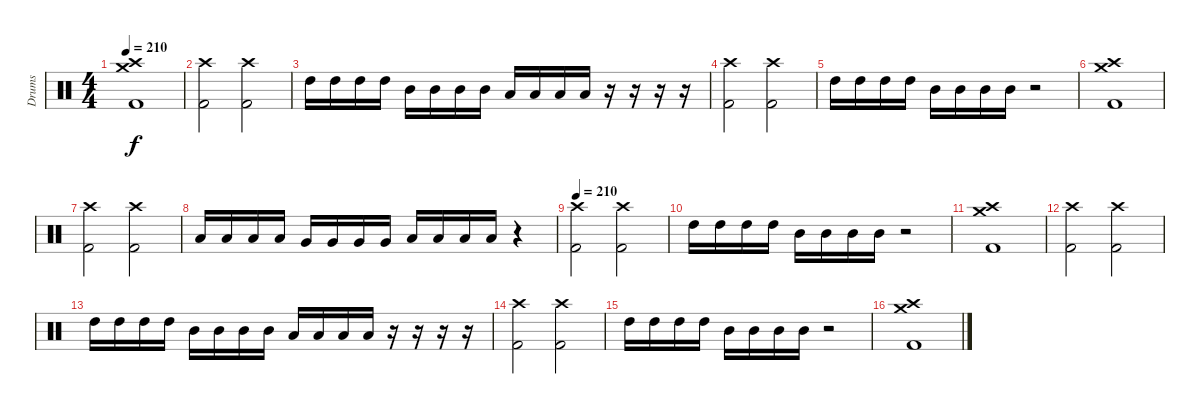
\track ("Drums" "Drums") {instrument percussion}
\staff {score}
\articulation defaults
\ts (4 4)
\tempo 210
\clef neutral
\ks c
("Crash high (hit)" "Crash medium (hit)" "Kick (hit) 2").1{dy f} |
("Crash high (hit)" "Kick (hit) 2").2 ("Crash high (hit)" "Kick (hit) 2").2 |
"High Tom (hit)".16 "High Tom (hit)".16 "High Tom (hit)".16 "High Tom (hit)".16 "Mid Tom (hit)".16 "Mid Tom (hit)".16 "Mid Tom (hit)".16 "Mid Tom (hit)".16 "Low Tom (hit)".16 "Low Tom (hit)".16 "Low Tom (hit)".16 "Low Tom (hit)".16 r.16 r.16 r.16 r.16 |
("Crash high (hit)" "Kick (hit) 2").2 ("Crash high (hit)" "Kick (hit) 2").2 |
"High Tom (hit)".16 "High Tom (hit)".16 "High Tom (hit)".16 "High Tom (hit)".16 "Mid Tom (hit)".16 "Mid Tom (hit)".16 "Mid Tom (hit)".16 "Mid Tom (hit)".16 r.2 |
("Crash high (hit)" "Crash medium (hit)" "Kick (hit) 2").1 |
("Crash high (hit)" "Kick (hit) 2").2 ("Crash high (hit)" "Kick (hit) 2").2 |
"Low Tom (hit)".16 "Low Tom (hit)".16 "Low Tom (hit)".16 "Low Tom (hit)".16 "Very Low Tom (hit)".16 "Very Low Tom (hit)".16 "Very Low Tom (hit)".16 "Very Low Tom (hit)".16 "Low Floor Tom (hit)".16 "Low Floor Tom (hit)".16 "Low Floor Tom (hit)".16 "Low Floor Tom (hit)".16 r.4 |
\tempo 210
("Crash high (hit)" "Kick (hit) 2").2 ("Crash high (hit)" "Kick (hit) 2").2 |
"High Tom (hit)".16 "High Tom (hit)".16 "High Tom (hit)".16 "High Tom (hit)".16 "Mid Tom (hit)".16 "Mid Tom (hit)".16 "Mid Tom (hit)".16 "Mid Tom (hit)".16 r.2 |
("Crash high (hit)" "Crash medium (hit)" "Kick (hit) 2").1 |
("Crash high (hit)" "Kick (hit) 2").2 ("Crash high (hit)" "Kick (hit) 2").2 |
"High Tom (hit)".16 "High Tom (hit)".16 "High Tom (hit)".16 "High Tom (hit)".16 "Mid Tom (hit)".16 "Mid Tom (hit)".16 "Mid Tom (hit)".16 "Mid Tom (hit)".16 "Low Tom (hit)".16 "Low Tom (hit)".16 "Low Tom (hit)".16 "Low Tom (hit)".16 r.16 r.16 r.16 r.16 |
("Crash high (hit)" "Kick (hit) 2").2 ("Crash high (hit)" "Kick (hit) 2").2 |
"High Tom (hit)".16 "High Tom (hit)".16 "High Tom (hit)".16 "High Tom (hit)".16 "Mid Tom (hit)".16 "Mid Tom (hit)".16 "Mid Tom (hit)".16 "Mid Tom (hit)".16 r.2 |
("Crash high (hit)" "Crash medium (hit)" "Kick (hit) 2").1
